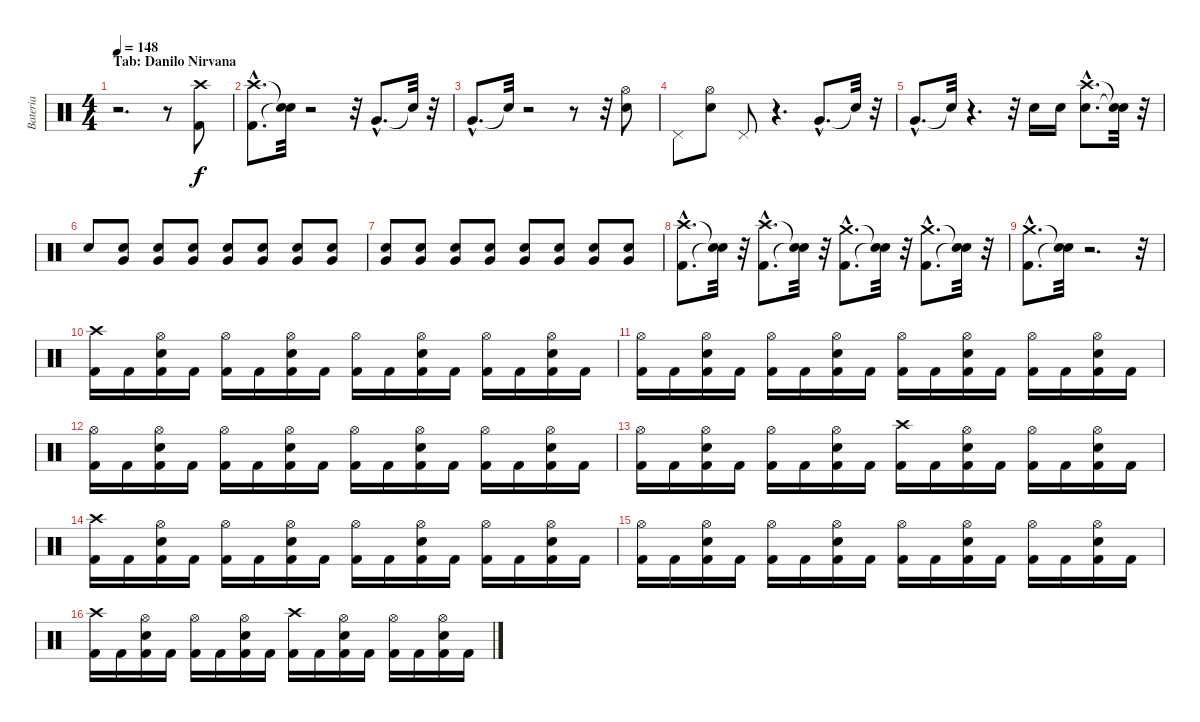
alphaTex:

\track ("Bateria" "Bateria") {instrument percussion}
\staff {score}
\articulation defaults
\ts (4 4)
\section ("" "Tab: Danilo Nirvana")
\tempo 148
\clef neutral
\ks c
r.2{d dy f} r.8 ("Kick (hit) 2" "Crash high (hit)").8{volume 16} |
("Kick (hit) 2"{hac} "Crash high (hit)"{hac}).8{d} ("Snare (hit)"{t} "Snare (hit)"{t}).32 r.2 r.32 "Very Low Tom (hit)"{hac}.8{d} "Snare (hit)"{t}.32 r.32 |
"Very Low Tom (hit)"{hac}.8{d} "Snare (hit)"{t}.32 r.2 r.8 r.32 ("Snare (hit) 2" "Hi-Hat (open)").8 |
"Pedal Hi-Hat (hit)".8 ("Snare (hit) 2" "Hi-Hat (open)").8 "Pedal Hi-Hat (hit)".8 r.4{d} "Very Low Tom (hit)"{hac}.8{d} "Snare (hit)"{t}.32 r.32 |
"Very Low Tom (hit)"{hac}.8{d} "Snare (hit)"{t}.32 r.4{d} r.32 "Snare (hit) 2".16 "Snare (hit) 2".16 ("Snare (hit) 2"{hac} "Crash high (hit)"{hac}).8{d} ("Snare (hit)"{t} "Snare (hit)"{t}).32 r.32 |
"Snare (hit) 2".8 ("Snare (hit) 2" "Very Low Tom (hit)").8 ("Snare (hit) 2" "Very Low Tom (hit)").8 ("Snare (hit) 2" "Very Low Tom (hit)").8 ("Snare (hit) 2" "Very Low Tom (hit)").8 ("Snare (hit) 2" "Very Low Tom (hit)").8 ("Snare (hit) 2" "Very Low Tom (hit)").8 ("Snare (hit) 2" "Very Low Tom (hit)").8 |
("Snare (hit) 2" "Very Low Tom (hit)").8 ("Snare (hit) 2" "Very Low Tom (hit)").8 ("Snare (hit) 2" "Very Low Tom (hit)").8 ("Snare (hit) 2" "Very Low Tom (hit)").8 ("Snare (hit) 2" "Very Low Tom (hit)").8 ("Snare (hit) 2" "Very Low Tom (hit)").8 ("Snare (hit) 2" "Very Low Tom (hit)").8 ("Snare (hit) 2" "Very Low Tom (hit)").8 |
("Kick (hit) 2"{hac} "Crash high (hit)"{hac}).8{d} ("Snare (hit)"{t} "Snare (hit)"{t}).32 r.32 ("Kick (hit) 2"{hac} "Crash high (hit)"{hac}).8{d} ("Snare (hit)"{t} "Snare (hit)"{t}).32 r.32 ("Kick (hit) 2"{hac} "Crash medium (hit)"{hac}).8{d} ("Snare (hit)"{t} "Snare (hit)"{t}).32 r.32 ("Kick (hit) 2"{hac} "Crash medium (hit)"{hac}).8{d} ("Snare (hit)"{t} "Snare (hit)"{t}).32 r.32 |
("Kick (hit) 2"{hac} "Crash medium (hit)"{hac}).8{d} ("Snare (hit)"{t} "Snare (hit)"{t}).32 r.2{d} r.32 |
("Kick (hit) 2" "Crash high (hit)").16 "Kick (hit) 2".16 ("Kick (hit) 2" "Hi-Hat (open)" "Snare (hit) 2").16 "Kick (hit) 2".16 ("Kick (hit) 2" "Hi-Hat (open)").16 "Kick (hit) 2".16 ("Kick (hit) 2" "Hi-Hat (open)" "Snare (hit) 2").16 "Kick (hit) 2".16 ("Kick (hit) 2" "Hi-Hat (open)").16 "Kick (hit) 2".16 ("Kick (hit) 2" "Hi-Hat (open)" "Snare (hit) 2").16 "Kick (hit) 2".16 ("Kick (hit) 2" "Hi-Hat (open)").16 "Kick (hit) 2".16 ("Kick (hit) 2" "Hi-Hat (open)" "Snare (hit) 2").16 "Kick (hit) 2".16 |
("Kick (hit) 2" "Hi-Hat (open)").16 "Kick (hit) 2".16 ("Kick (hit) 2" "Hi-Hat (open)" "Snare (hit) 2").16 "Kick (hit) 2".16 ("Kick (hit) 2" "Hi-Hat (open)").16 "Kick (hit) 2".16 ("Kick (hit) 2" "Hi-Hat (open)" "Snare (hit) 2").16 "Kick (hit) 2".16 ("Kick (hit) 2" "Hi-Hat (open)").16 "Kick (hit) 2".16 ("Kick (hit) 2" "Hi-Hat (open)" "Snare (hit) 2").16 "Kick (hit) 2".16 ("Kick (hit) 2" "Hi-Hat (open)").16 "Kick (hit) 2".16 ("Kick (hit) 2" "Hi-Hat (open)" "Snare (hit) 2").16 "Kick (hit) 2".16 |
("Kick (hit) 2" "Hi-Hat (open)").16 "Kick (hit) 2".16 ("Kick (hit) 2" "Hi-Hat (open)" "Snare (hit) 2").16 "Kick (hit) 2".16 ("Kick (hit) 2" "Hi-Hat (open)").16 "Kick (hit) 2".16 ("Kick (hit) 2" "Hi-Hat (open)" "Snare (hit) 2").16 "Kick (hit) 2".16 ("Kick (hit) 2" "Hi-Hat (open)").16 "Kick (hit) 2".16 ("Kick (hit) 2" "Hi-Hat (open)" "Snare (hit) 2").16 "Kick (hit) 2".16 ("Kick (hit) 2" "Hi-Hat (open)").16 "Kick (hit) 2".16 ("Kick (hit) 2" "Hi-Hat (open)" "Snare (hit) 2").16 "Kick (hit) 2".16 |
("Kick (hit) 2" "Hi-Hat (open)").16 "Kick (hit) 2".16 ("Kick (hit) 2" "Hi-Hat (open)" "Snare (hit) 2").16 "Kick (hit) 2".16 ("Kick (hit) 2" "Hi-Hat (open)").16 "Kick (hit) 2".16 ("Kick (hit) 2" "Hi-Hat (open)" "Snare (hit) 2").16 "Kick (hit) 2".16 ("Kick (hit) 2" "Crash high (hit)").16 "Kick (hit) 2".16 ("Kick (hit) 2" "Hi-Hat (open)" "Snare (hit) 2").16 "Kick (hit) 2".16 ("Kick (hit) 2" "Hi-Hat (open)").16 "Kick (hit) 2".16 ("Kick (hit) 2" "Hi-Hat (open)" "Snare (hit) 2").16 "Kick (hit) 2".16 |
("Kick (hit) 2" "Crash high (hit)").16 "Kick (hit) 2".16 ("Kick (hit) 2" "Hi-Hat (open)" "Snare (hit) 2").16 "Kick (hit) 2".16 ("Kick (hit) 2" "Hi-Hat (open)").16 "Kick (hit) 2".16 ("Kick (hit) 2" "Hi-Hat (open)" "Snare (hit) 2").16 "Kick (hit) 2".16 ("Kick (hit) 2" "Hi-Hat (open)").16 "Kick (hit) 2".16 ("Kick (hit) 2" "Hi-Hat (open)" "Snare (hit) 2").16 "Kick (hit) 2".16 ("Kick (hit) 2" "Hi-Hat (open)").16 "Kick (hit) 2".16 ("Kick (hit) 2" "Hi-Hat (open)" "Snare (hit) 2").16 "Kick (hit) 2".16 |
("Kick (hit) 2" "Hi-Hat (open)").16 "Kick (hit) 2".16 ("Kick (hit) 2" "Hi-Hat (open)" "Snare (hit) 2").16 "Kick (hit) 2".16 ("Kick (hit) 2" "Hi-Hat (open)").16 "Kick (hit) 2".16 ("Kick (hit) 2" "Hi-Hat (open)" "Snare (hit) 2").16 "Kick (hit) 2".16 ("Kick (hit) 2" "Hi-Hat (open)").16 "Kick (hit) 2".16 ("Kick (hit) 2" "Hi-Hat (open)" "Snare (hit) 2").16 "Kick (hit) 2".16 ("Kick (hit) 2" "Hi-Hat (open)").16 "Kick (hit) 2".16 ("Kick (hit) 2" "Hi-Hat (open)" "Snare (hit) 2").16 "Kick (hit) 2".16 |
("Kick (hit) 2" "Crash high (hit)").16 "Kick (hit) 2".16 ("Kick (hit) 2" "Hi-Hat (open)" "Snare (hit) 2").16 "Kick (hit) 2".16 ("Kick (hit) 2" "Hi-Hat (open)").16 "Kick (hit) 2".16 ("Kick (hit) 2" "Hi-Hat (open)" "Snare (hit) 2").16 "Kick (hit) 2".16 ("Kick (hit) 2" "Crash high (hit)").16 "Kick (hit) 2".16 ("Kick (hit) 2" "Hi-Hat (open)" "Snare (hit) 2").16 "Kick (hit) 2".16 ("Kick (hit) 2" "Hi-Hat (open)").16 "Kick (hit) 2".16 ("Kick (hit) 2" "Hi-Hat (open)" "Snare (hit) 2").16 "Kick (hit) 2".16
